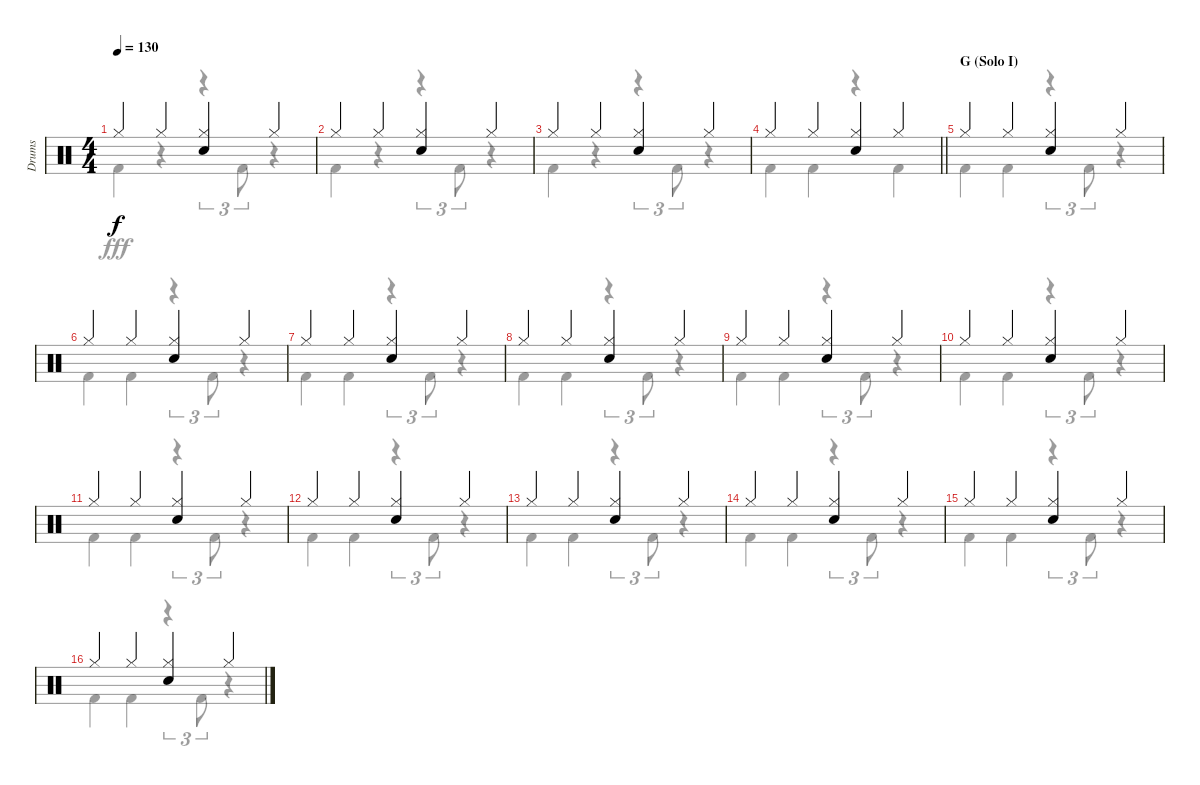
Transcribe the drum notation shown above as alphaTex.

\track ("Drums" "Drums") {instrument percussion}
\staff {score}
\articulation defaults
\voice
\ts (4 4)
\tempo 130
\clef neutral
\ks c "Hi-Hat (closed)".4{dy f} "Hi-Hat (closed)".4
("Hi-Hat (closed)" "Snare (hit) 2").4 "Hi-Hat (closed)".4 |
"Hi-Hat (closed)".4 "Hi-Hat (closed)".4 ("Hi-Hat (closed)" "Snare (hit) 2").4 "Hi-Hat (closed)".4 |
"Hi-Hat (closed)".4 "Hi-Hat (closed)".4 ("Hi-Hat (closed)" "Snare (hit) 2").4 "Hi-Hat (closed)".4 |
\barLineRight lightlight "Hi-Hat (closed)".4 "Hi-Hat (closed)".4
("Hi-Hat (closed)" "Snare (hit) 2").4 "Hi-Hat (closed)".4 |
\section ("" "G (Solo I)")
"Hi-Hat (closed)".4 "Hi-Hat (closed)".4 ("Hi-Hat (closed)" "Snare (hit) 2").4 "Hi-Hat (closed)".4 |
"Hi-Hat (closed)".4 "Hi-Hat (closed)".4 ("Hi-Hat (closed)" "Snare (hit) 2").4 "Hi-Hat (closed)".4 |
"Hi-Hat (closed)".4 "Hi-Hat (closed)".4 ("Hi-Hat (closed)" "Snare (hit) 2").4 "Hi-Hat (closed)".4 |
"Hi-Hat (closed)".4 "Hi-Hat (closed)".4 ("Hi-Hat (closed)" "Snare (hit) 2").4 "Hi-Hat (closed)".4 |
"Hi-Hat (closed)".4 "Hi-Hat (closed)".4 ("Hi-Hat (closed)" "Snare (hit) 2").4 "Hi-Hat (closed)".4 |
"Hi-Hat (closed)".4 "Hi-Hat (closed)".4 ("Hi-Hat (closed)" "Snare (hit) 2").4 "Hi-Hat (closed)".4 |
"Hi-Hat (closed)".4 "Hi-Hat (closed)".4 ("Hi-Hat (closed)" "Snare (hit) 2").4 "Hi-Hat (closed)".4 |
"Hi-Hat (closed)".4 "Hi-Hat (closed)".4 ("Hi-Hat (closed)" "Snare (hit) 2").4 "Hi-Hat (closed)".4 |
"Hi-Hat (closed)".4 "Hi-Hat (closed)".4 ("Hi-Hat (closed)" "Snare (hit) 2").4 "Hi-Hat (closed)".4 |
"Hi-Hat (closed)".4 "Hi-Hat (closed)".4 ("Hi-Hat (closed)" "Snare (hit) 2").4 "Hi-Hat (closed)".4 |
"Hi-Hat (closed)".4 "Hi-Hat (closed)".4 ("Hi-Hat (closed)" "Snare (hit) 2").4 "Hi-Hat (closed)".4 |
"Hi-Hat (closed)".4 "Hi-Hat (closed)".4 ("Hi-Hat (closed)" "Snare (hit) 2").4 "Hi-Hat (closed)".4
\voice
\clef neutral
\ottava regular
\simile none
\ks c "Kick (hit) 2".4{dy fff}
r.4 r.4{tu (3 2)} "Kick (hit) 2".8{tu (3 2)} r.4 |
"Kick (hit) 2".4 r.4 r.4{tu (3 2)} "Kick (hit) 2".8{tu (3 2)} r.4 |
"Kick (hit) 2".4 r.4 r.4{tu (3 2)} "Kick (hit) 2".8{tu (3 2)} r.4 |
\barLineRight lightlight "Kick (hit) 2".4 "Kick (hit) 2".4
r.4 "Kick (hit) 2".4 |
"Kick (hit) 2".4 "Kick (hit) 2".4 r.4{tu (3 2)} "Kick (hit) 2".8{tu (3 2)} r.4 |
"Kick (hit) 2".4 "Kick (hit) 2".4 r.4{tu (3 2)} "Kick (hit) 2".8{tu (3 2)} r.4 |
"Kick (hit) 2".4 "Kick (hit) 2".4 r.4{tu (3 2)} "Kick (hit) 2".8{tu (3 2)} r.4 |
"Kick (hit) 2".4 "Kick (hit) 2".4 r.4{tu (3 2)} "Kick (hit) 2".8{tu (3 2)} r.4 |
"Kick (hit) 2".4 "Kick (hit) 2".4 r.4{tu (3 2)} "Kick (hit) 2".8{tu (3 2)} r.4 |
"Kick (hit) 2".4 "Kick (hit) 2".4 r.4{tu (3 2)} "Kick (hit) 2".8{tu (3 2)} r.4 |
"Kick (hit) 2".4 "Kick (hit) 2".4 r.4{tu (3 2)} "Kick (hit) 2".8{tu (3 2)} r.4 |
"Kick (hit) 2".4 "Kick (hit) 2".4 r.4{tu (3 2)} "Kick (hit) 2".8{tu (3 2)} r.4 |
"Kick (hit) 2".4 "Kick (hit) 2".4 r.4{tu (3 2)} "Kick (hit) 2".8{tu (3 2)} r.4 |
"Kick (hit) 2".4 "Kick (hit) 2".4 r.4{tu (3 2)} "Kick (hit) 2".8{tu (3 2)} r.4 |
"Kick (hit) 2".4 "Kick (hit) 2".4 r.4{tu (3 2)} "Kick (hit) 2".8{tu (3 2)} r.4 |
"Kick (hit) 2".4 "Kick (hit) 2".4 r.4{tu (3 2)} "Kick (hit) 2".8{tu (3 2)} r.4
